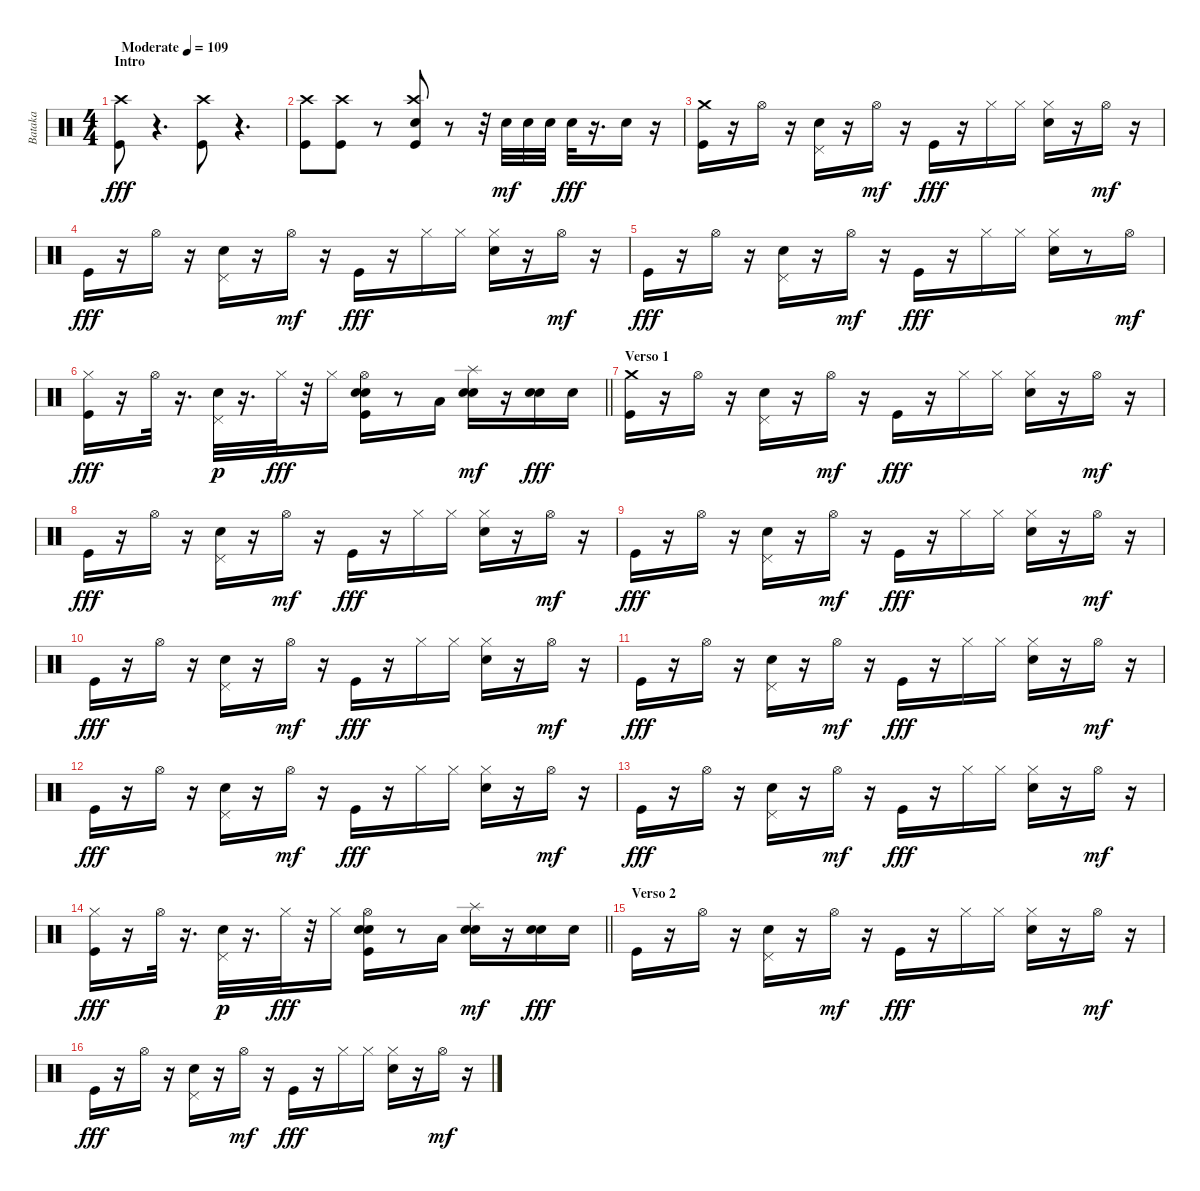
\track ("Bataka" "Bataka") {instrument percussion}
\staff {score}
\articulation defaults
\ts (4 4)
\section ("" "Intro")
\tempo (109 "Moderate")
\clef neutral
\ks c
("Kick (hit)" "Crash high (hit)").8{dy fff} r.4{d} ("Kick (hit)" "Crash high (hit)").8 r.4{d} |
("Kick (hit)" "Crash high (hit)").8 ("Crash high (hit)" "Kick (hit)").8 r.8 ("Kick (hit)" "Crash high (hit)" "Snare (hit) 2").8 r.8 r.32 "Snare (hit) 2".32{dy mf} "Snare (hit) 2".32 "Snare (hit) 2".32 "Snare (hit) 2".32{dy fff} r.16{d} "Snare (hit) 2".16 r.16 |
("Kick (hit)" "Crash medium (hit)").16 r.16 "Hi-Hat (open)".16 r.16 ("Snare (hit) 2" "Pedal Hi-Hat (hit)").16 r.16 "Hi-Hat (open)".16{dy mf} r.16 "Kick (hit)".16{dy fff} r.16 "Hi-Hat (closed)".16 "Hi-Hat (closed)".16 ("Snare (hit) 2" "Hi-Hat (closed)").16 r.16 "Hi-Hat (open)".16{dy mf} r.16 |
"Kick (hit)".16{dy fff} r.16 "Hi-Hat (open)".16 r.16 ("Snare (hit) 2" "Pedal Hi-Hat (hit)").16 r.16 "Hi-Hat (open)".16{dy mf} r.16 "Kick (hit)".16{dy fff} r.16 "Hi-Hat (closed)".16 "Hi-Hat (closed)".16 ("Snare (hit) 2" "Hi-Hat (closed)").16 r.16 "Hi-Hat (open)".16{dy mf} r.16 |
"Kick (hit)".16{dy fff} r.16 "Hi-Hat (open)".16 r.16 ("Snare (hit) 2" "Pedal Hi-Hat (hit)").16 r.16 "Hi-Hat (open)".16{dy mf} r.16 "Kick (hit)".16{dy fff} r.16 "Hi-Hat (closed)".16 "Hi-Hat (closed)".16 ("Snare (hit) 2" "Hi-Hat (closed)").16 r.8 "Hi-Hat (open)".16{dy mf} |
\barLineRight lightlight
("Kick (hit)" "Hi-Hat (closed)").16{dy fff} r.16 "Hi-Hat (open)".32 r.16{d} ("Snare (hit) 2" "Pedal Hi-Hat (hit)").32{dy p} r.16{d} "Hi-Hat (closed)".32{dy fff} r.32 "Hi-Hat (closed)".16 ("Snare (hit) 2" "Kick (hit)" "Snare (hit) 2" "Hi-Hat (open)").16 r.8 "Low Floor Tom (hit)".16 ("Snare (hit) 2" "Snare (hit) 2" "Splash (hit)").16{dy mf} r.16 ("Snare (hit) 2" "Snare (hit) 2").16{dy fff} "Snare (hit) 2".16 |
\section ("" "Verso 1")
("Kick (hit)" "Crash medium (hit)").16 r.16 "Hi-Hat (open)".16 r.16 ("Pedal Hi-Hat (hit)" "Snare (hit) 2").16 r.16 "Hi-Hat (open)".16{dy mf} r.16 "Kick (hit)".16{dy fff} r.16 "Hi-Hat (closed)".16 "Hi-Hat (closed)".16 ("Hi-Hat (closed)" "Snare (hit) 2").16 r.16 "Hi-Hat (open)".16{dy mf} r.16 |
"Kick (hit)".16{dy fff} r.16 "Hi-Hat (open)".16 r.16 ("Snare (hit) 2" "Pedal Hi-Hat (hit)").16 r.16 "Hi-Hat (open)".16{dy mf} r.16 "Kick (hit)".16{dy fff} r.16 "Hi-Hat (closed)".16 "Hi-Hat (closed)".16 ("Snare (hit) 2" "Hi-Hat (closed)").16 r.16 "Hi-Hat (open)".16{dy mf} r.16 |
"Kick (hit)".16{dy fff} r.16 "Hi-Hat (open)".16 r.16 ("Snare (hit) 2" "Pedal Hi-Hat (hit)").16 r.16 "Hi-Hat (open)".16{dy mf} r.16 "Kick (hit)".16{dy fff} r.16 "Hi-Hat (closed)".16 "Hi-Hat (closed)".16 ("Snare (hit) 2" "Hi-Hat (closed)").16 r.16 "Hi-Hat (open)".16{dy mf} r.16 |
"Kick (hit)".16{dy fff} r.16 "Hi-Hat (open)".16 r.16 ("Snare (hit) 2" "Pedal Hi-Hat (hit)").16 r.16 "Hi-Hat (open)".16{dy mf} r.16 "Kick (hit)".16{dy fff} r.16 "Hi-Hat (closed)".16 "Hi-Hat (closed)".16 ("Snare (hit) 2" "Hi-Hat (closed)").16 r.16 "Hi-Hat (open)".16{dy mf} r.16 |
"Kick (hit)".16{dy fff} r.16 "Hi-Hat (open)".16 r.16 ("Snare (hit) 2" "Pedal Hi-Hat (hit)").16 r.16 "Hi-Hat (open)".16{dy mf} r.16 "Kick (hit)".16{dy fff} r.16 "Hi-Hat (closed)".16 "Hi-Hat (closed)".16 ("Snare (hit) 2" "Hi-Hat (closed)").16 r.16 "Hi-Hat (open)".16{dy mf} r.16 |
"Kick (hit)".16{dy fff} r.16 "Hi-Hat (open)".16 r.16 ("Snare (hit) 2" "Pedal Hi-Hat (hit)").16 r.16 "Hi-Hat (open)".16{dy mf} r.16 "Kick (hit)".16{dy fff} r.16 "Hi-Hat (closed)".16 "Hi-Hat (closed)".16 ("Snare (hit) 2" "Hi-Hat (closed)").16 r.16 "Hi-Hat (open)".16{dy mf} r.16 |
"Kick (hit)".16{dy fff} r.16 "Hi-Hat (open)".16 r.16 ("Snare (hit) 2" "Pedal Hi-Hat (hit)").16 r.16 "Hi-Hat (open)".16{dy mf} r.16 "Kick (hit)".16{dy fff} r.16 "Hi-Hat (closed)".16 "Hi-Hat (closed)".16 ("Snare (hit) 2" "Hi-Hat (closed)").16 r.16 "Hi-Hat (open)".16{dy mf} r.16 |
\barLineRight lightlight
("Kick (hit)" "Hi-Hat (closed)").16{dy fff} r.16 "Hi-Hat (open)".32 r.16{d} ("Snare (hit) 2" "Pedal Hi-Hat (hit)").32{dy p} r.16{d} "Hi-Hat (closed)".32{dy fff} r.32 "Hi-Hat (closed)".16 ("Snare (hit) 2" "Kick (hit)" "Snare (hit) 2" "Hi-Hat (open)").16 r.8 "Low Floor Tom (hit)".16 ("Snare (hit) 2" "Snare (hit) 2" "Splash (hit)").16{dy mf} r.16 ("Snare (hit) 2" "Snare (hit) 2").16{dy fff} "Snare (hit) 2".16 |
\section ("" "Verso 2")
"Kick (hit)".16 r.16 "Hi-Hat (open)".16 r.16 ("Snare (hit) 2" "Pedal Hi-Hat (hit)").16 r.16 "Hi-Hat (open)".16{dy mf} r.16 "Kick (hit)".16{dy fff} r.16 "Hi-Hat (closed)".16 "Hi-Hat (closed)".16 ("Snare (hit) 2" "Hi-Hat (closed)").16 r.16 "Hi-Hat (open)".16{dy mf} r.16 |
"Kick (hit)".16{dy fff} r.16 "Hi-Hat (open)".16 r.16 ("Snare (hit) 2" "Pedal Hi-Hat (hit)").16 r.16 "Hi-Hat (open)".16{dy mf} r.16 "Kick (hit)".16{dy fff} r.16 "Hi-Hat (closed)".16 "Hi-Hat (closed)".16 ("Snare (hit) 2" "Hi-Hat (closed)").16 r.16 "Hi-Hat (open)".16{dy mf} r.16
